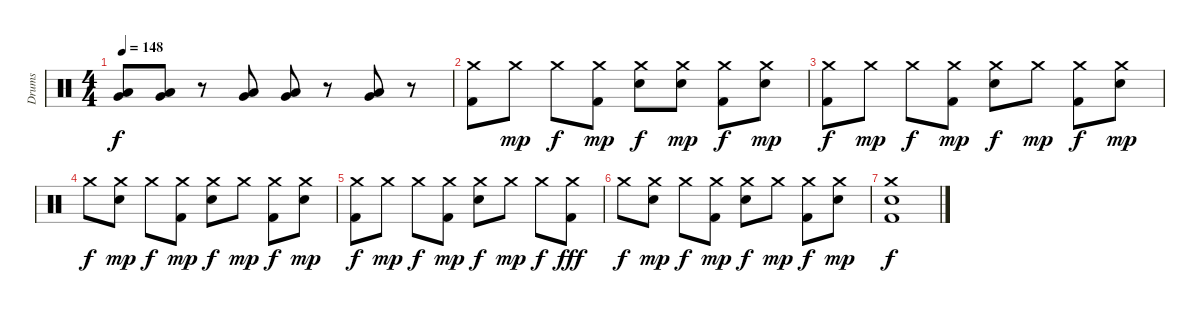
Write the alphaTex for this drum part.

\track ("Drums" "Drums") {instrument percussion}
\staff {score}
\articulation defaults
\ts (4 4)
\tempo 148
\clef neutral
\ks c
("Low Tom (hit)" "Very Low Tom (hit)").8{dy f} ("Low Tom (hit)" "Very Low Tom (hit)").8 r.8 ("Low Tom (hit)" "Very Low Tom (hit)").8 ("Low Tom (hit)" "Very Low Tom (hit)").8 r.8 ("Low Tom (hit)" "Very Low Tom (hit)").8 r.8 |
("Crash medium (hit)" "Kick (hit) 2").8 "Crash medium (hit)".8{dy mp} "Crash medium (hit)".8{dy f} ("Crash medium (hit)" "Kick (hit) 2").8{dy mp} ("Crash medium (hit)" "Snare (hit) 2").8{dy f} ("Crash medium (hit)" "Snare (hit) 2").8{dy mp} ("Crash medium (hit)" "Kick (hit) 2").8{dy f} ("Crash medium (hit)" "Snare (hit) 2").8{dy mp} |
("Crash medium (hit)" "Kick (hit) 2").8{dy f} "Crash medium (hit)".8{dy mp} "Crash medium (hit)".8{dy f} ("Crash medium (hit)" "Kick (hit) 2").8{dy mp} ("Crash medium (hit)" "Snare (hit) 2").8{dy f} "Crash medium (hit)".8{dy mp} ("Crash medium (hit)" "Kick (hit) 2").8{dy f} ("Crash medium (hit)" "Snare (hit) 2").8{dy mp} |
"Crash medium (hit)".8{dy f} ("Crash medium (hit)" "Snare (hit) 2").8{dy mp} "Crash medium (hit)".8{dy f} ("Crash medium (hit)" "Kick (hit) 2").8{dy mp} ("Crash medium (hit)" "Snare (hit) 2").8{dy f} "Crash medium (hit)".8{dy mp} ("Crash medium (hit)" "Kick (hit) 2").8{dy f} ("Crash medium (hit)" "Snare (hit) 2").8{dy mp} |
("Crash medium (hit)" "Kick (hit) 2").8{dy f} "Crash medium (hit)".8{dy mp} "Crash medium (hit)".8{dy f} ("Crash medium (hit)" "Kick (hit) 2").8{dy mp} ("Crash medium (hit)" "Snare (hit) 2").8{dy f} "Crash medium (hit)".8{dy mp} "Crash medium (hit)".8{dy f} ("Crash medium (hit)" "Kick (hit) 2").8{dy fff} |
"Crash medium (hit)".8{dy f} ("Crash medium (hit)" "Snare (hit) 2").8{dy mp} "Crash medium (hit)".8{dy f} ("Crash medium (hit)" "Kick (hit) 2").8{dy mp} ("Crash medium (hit)" "Snare (hit) 2").8{dy f} "Crash medium (hit)".8{dy mp} ("Crash medium (hit)" "Kick (hit) 2").8{dy f} ("Crash medium (hit)" "Snare (hit) 2").8{dy mp} |
("Crash medium (hit)" "Snare (hit) 2" "Kick (hit) 2").1{dy f}
